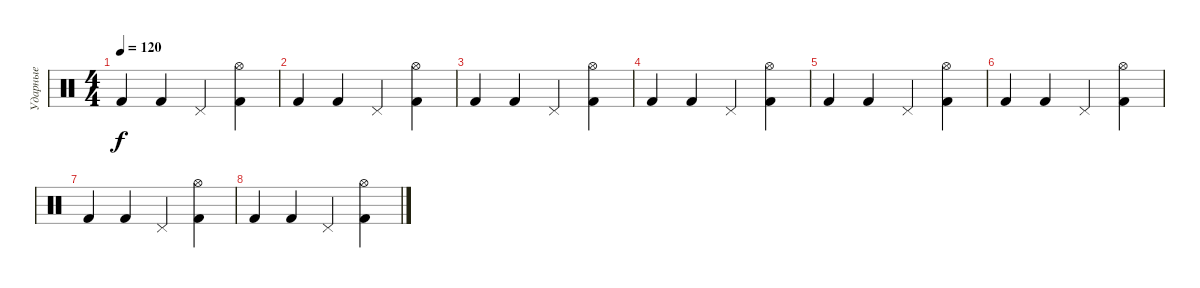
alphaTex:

\track ("Ударные" "Ударные") {instrument percussion}
\staff {score}
\articulation defaults
\ts (4 4)
\tempo 120
\clef neutral
\ks c "Kick (hit) 2".4{dy f} "Kick (hit) 2".4 "Pedal Hi-Hat (hit)".4
("Kick (hit) 2" "Hi-Hat (open)").4 |
"Kick (hit) 2".4 "Kick (hit) 2".4 "Pedal Hi-Hat (hit)".4 ("Kick (hit) 2" "Hi-Hat (open)").4 |
"Kick (hit) 2".4 "Kick (hit) 2".4 "Pedal Hi-Hat (hit)".4 ("Kick (hit) 2" "Hi-Hat (open)").4 |
"Kick (hit) 2".4 "Kick (hit) 2".4 "Pedal Hi-Hat (hit)".4 ("Kick (hit) 2" "Hi-Hat (open)").4 |
"Kick (hit) 2".4 "Kick (hit) 2".4 "Pedal Hi-Hat (hit)".4 ("Kick (hit) 2" "Hi-Hat (open)").4 |
"Kick (hit) 2".4 "Kick (hit) 2".4 "Pedal Hi-Hat (hit)".4 ("Kick (hit) 2" "Hi-Hat (open)").4 |
"Kick (hit) 2".4 "Kick (hit) 2".4 "Pedal Hi-Hat (hit)".4 ("Kick (hit) 2" "Hi-Hat (open)").4 |
"Kick (hit) 2".4 "Kick (hit) 2".4 "Pedal Hi-Hat (hit)".4 ("Kick (hit) 2" "Hi-Hat (open)").4
